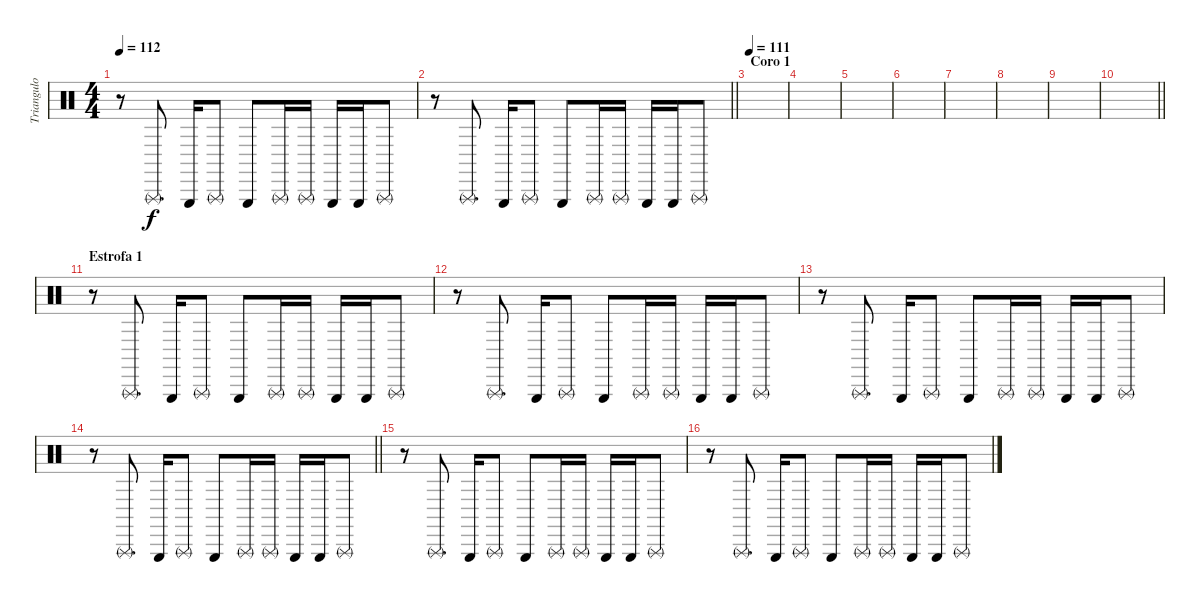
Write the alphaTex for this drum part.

\track ("Triangulo" "Triangulo") {instrument percussion}
\staff {score}
\articulation defaults
\ts (4 4)
\tempo 112
\clef neutral
\ks c
r.8{dy f} "Triangle (rnute)".8{d} "Triangle (hit)".16 "Triangle (rnute)".8 "Triangle (hit)".8 "Triangle (rnute)".16 "Triangle (rnute)".16 "Triangle (hit)".16 "Triangle (hit)".16 "Triangle (rnute)".8 |
\barLineRight lightlight
r.8 "Triangle (rnute)".8{d} "Triangle (hit)".16 "Triangle (rnute)".8 "Triangle (hit)".8 "Triangle (rnute)".16 "Triangle (rnute)".16 "Triangle (hit)".16 "Triangle (hit)".16 "Triangle (rnute)".8 |
\section ("" "Coro 1")
\tempo 111
|
|
|
|
|
|
|
\barLineRight lightlight
|
\section ("" "Estrofa 1")
r.8 "Triangle (rnute)".8{d} "Triangle (hit)".16 "Triangle (rnute)".8 "Triangle (hit)".8 "Triangle (rnute)".16 "Triangle (rnute)".16 "Triangle (hit)".16 "Triangle (hit)".16 "Triangle (rnute)".8 |
r.8 "Triangle (rnute)".8{d} "Triangle (hit)".16 "Triangle (rnute)".8 "Triangle (hit)".8 "Triangle (rnute)".16 "Triangle (rnute)".16 "Triangle (hit)".16 "Triangle (hit)".16 "Triangle (rnute)".8 |
r.8 "Triangle (rnute)".8{d} "Triangle (hit)".16 "Triangle (rnute)".8 "Triangle (hit)".8 "Triangle (rnute)".16 "Triangle (rnute)".16 "Triangle (hit)".16 "Triangle (hit)".16 "Triangle (rnute)".8 |
\barLineRight lightlight
r.8 "Triangle (rnute)".8{d} "Triangle (hit)".16 "Triangle (rnute)".8 "Triangle (hit)".8 "Triangle (rnute)".16 "Triangle (rnute)".16 "Triangle (hit)".16 "Triangle (hit)".16 "Triangle (rnute)".8 |
r.8 "Triangle (rnute)".8{d} "Triangle (hit)".16 "Triangle (rnute)".8 "Triangle (hit)".8 "Triangle (rnute)".16 "Triangle (rnute)".16 "Triangle (hit)".16 "Triangle (hit)".16 "Triangle (rnute)".8 |
r.8 "Triangle (rnute)".8{d} "Triangle (hit)".16 "Triangle (rnute)".8 "Triangle (hit)".8 "Triangle (rnute)".16 "Triangle (rnute)".16 "Triangle (hit)".16 "Triangle (hit)".16 "Triangle (rnute)".8
